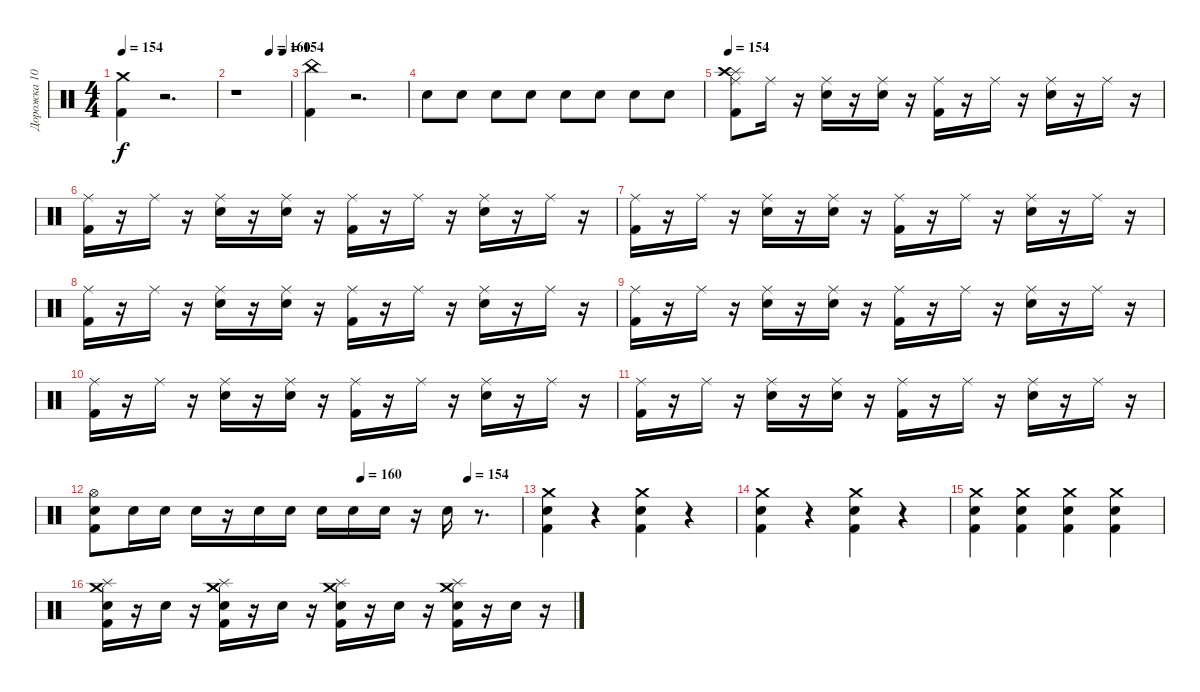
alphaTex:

\track ("Дорожка 10" "Дорожка 10") {instrument percussion}
\staff {score}
\articulation defaults
\ts (4 4)
\tempo 154
\clef neutral
\ks c
("Crash medium (hit)" "Kick (hit) 2").4{dy f} r.2{d} |
\tempo (160 0.625)
\tempo (154 0.875)
r.1 |
("China (hit)" "Kick (hit) 2").4 r.2{d} |
"Electric Snare (hit)".8 "Electric Snare (hit)".8 "Electric Snare (hit)".8 "Electric Snare (hit)".8 "Electric Snare (hit)".8 "Electric Snare (hit)".8 "Electric Snare (hit)".8 "Electric Snare (hit)".8 |
\tempo 154
("Splash (hit)" "Ride (middle)" "Crash high (hit)" "Kick (hit) 2").8 "Ride (middle)".16 r.16 ("Ride (middle)" "Electric Snare (hit)").16 r.16 ("Ride (middle)" "Electric Snare (hit)").16 r.16 ("Ride (middle)" "Kick (hit) 2").16 r.16 "Ride (middle)".16 r.16 ("Ride (middle)" "Electric Snare (hit)").16 r.16 "Ride (middle)".16 r.16 |
("Ride (middle)" "Kick (hit) 2").16 r.16 "Ride (middle)".16 r.16 ("Ride (middle)" "Electric Snare (hit)").16 r.16 ("Ride (middle)" "Electric Snare (hit)").16 r.16 ("Ride (middle)" "Kick (hit) 2").16 r.16 "Ride (middle)".16 r.16 ("Ride (middle)" "Electric Snare (hit)").16 r.16 "Ride (middle)".16 r.16 |
("Ride (middle)" "Kick (hit) 2").16 r.16 "Ride (middle)".16 r.16 ("Ride (middle)" "Electric Snare (hit)").16 r.16 ("Ride (middle)" "Electric Snare (hit)").16 r.16 ("Ride (middle)" "Kick (hit) 2").16 r.16 "Ride (middle)".16 r.16 ("Ride (middle)" "Electric Snare (hit)").16 r.16 "Ride (middle)".16 r.16 |
("Ride (middle)" "Kick (hit) 2").16 r.16 "Ride (middle)".16 r.16 ("Ride (middle)" "Electric Snare (hit)").16 r.16 ("Ride (middle)" "Electric Snare (hit)").16 r.16 ("Ride (middle)" "Kick (hit) 2").16 r.16 "Ride (middle)".16 r.16 ("Ride (middle)" "Electric Snare (hit)").16 r.16 "Ride (middle)".16 r.16 |
("Ride (middle)" "Kick (hit) 2").16 r.16 "Ride (middle)".16 r.16 ("Ride (middle)" "Electric Snare (hit)").16 r.16 ("Ride (middle)" "Electric Snare (hit)").16 r.16 ("Ride (middle)" "Kick (hit) 2").16 r.16 "Ride (middle)".16 r.16 ("Ride (middle)" "Electric Snare (hit)").16 r.16 "Ride (middle)".16 r.16 |
("Ride (middle)" "Kick (hit) 2").16 r.16 "Ride (middle)".16 r.16 ("Ride (middle)" "Electric Snare (hit)").16 r.16 ("Ride (middle)" "Electric Snare (hit)").16 r.16 ("Ride (middle)" "Kick (hit) 2").16 r.16 "Ride (middle)".16 r.16 ("Ride (middle)" "Electric Snare (hit)").16 r.16 "Ride (middle)".16 r.16 |
("Ride (middle)" "Kick (hit) 2").16 r.16 "Ride (middle)".16 r.16 ("Ride (middle)" "Electric Snare (hit)").16 r.16 ("Ride (middle)" "Electric Snare (hit)").16 r.16 ("Ride (middle)" "Kick (hit) 2").16 r.16 "Ride (middle)".16 r.16 ("Ride (middle)" "Electric Snare (hit)").16 r.16 "Ride (middle)".16 r.16 |
\tempo (160 0.625)
\tempo (154 0.875)
("Kick (hit) 2" "Electric Snare (hit)" "Hi-Hat (open)").8 "Electric Snare (hit)".16 "Electric Snare (hit)".16 "Electric Snare (hit)".16 r.16 "Electric Snare (hit)".16 "Electric Snare (hit)".16 "Electric Snare (hit)".16 "Electric Snare (hit)".16 "Electric Snare (hit)".16 r.16 "Electric Snare (hit)".16 r.8{d} |
("Electric Snare (hit)" "Crash medium (hit)" "Kick (hit) 2").4 r.4 ("Kick (hit) 2" "Electric Snare (hit)" "Crash medium (hit)").4 r.4 |
("Electric Snare (hit)" "Kick (hit) 2" "Crash medium (hit)").4 r.4 ("Kick (hit) 2" "Electric Snare (hit)" "Crash medium (hit)").4 r.4 |
("Electric Snare (hit)" "Kick (hit) 2" "Crash medium (hit)").4 ("Electric Snare (hit)" "Kick (hit) 2" "Crash medium (hit)").4 ("Electric Snare (hit)" "Kick (hit) 2" "Crash medium (hit)").4 ("Electric Snare (hit)" "Kick (hit) 2" "Crash medium (hit)").4 |
("Kick (hit) 2" "Crash medium (hit)" "Splash (hit)" "Electric Snare (hit)").16 r.16 "Electric Snare (hit)".16 r.16 ("Kick (hit) 2" "Crash medium (hit)" "Splash (hit)" "Electric Snare (hit)").16 r.16 "Electric Snare (hit)".16 r.16 ("Kick (hit) 2" "Crash medium (hit)" "Splash (hit)" "Electric Snare (hit)").16 r.16 "Electric Snare (hit)".16 r.16 ("Kick (hit) 2" "Crash medium (hit)" "Splash (hit)" "Electric Snare (hit)").16 r.16 "Electric Snare (hit)".16 r.16
